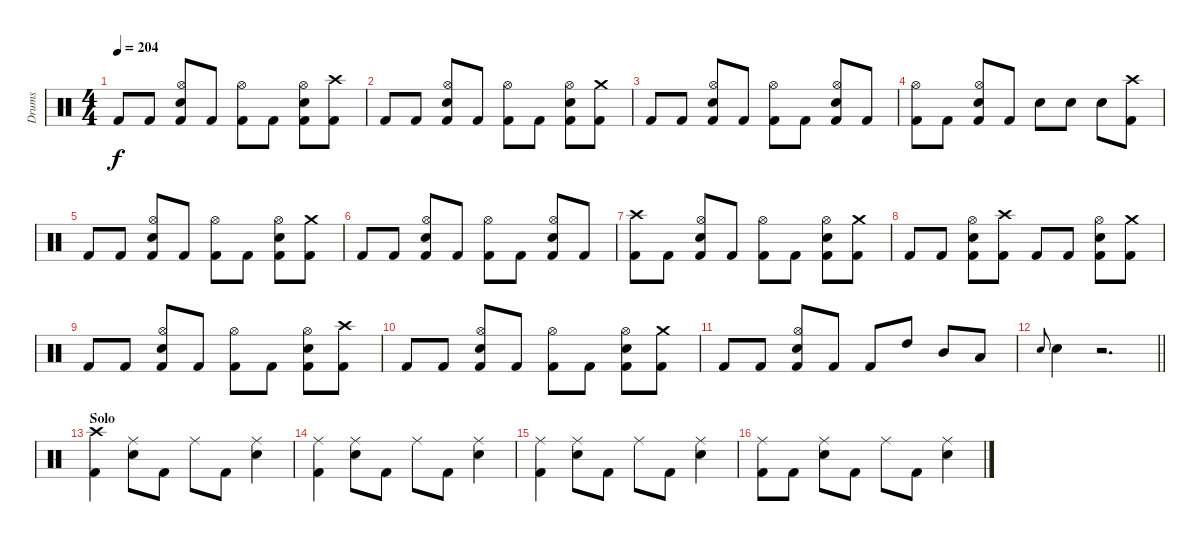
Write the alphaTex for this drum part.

\track ("Drums" "Drums") {instrument percussion}
\staff {score}
\articulation defaults
\ts (4 4)
\tempo 204
\clef neutral
\ks c "Kick (hit) 2".8{dy f} "Kick (hit) 2".8
("Hi-Hat (open)" "Snare (hit) 2" "Kick (hit) 2").8 "Kick (hit) 2".8 ("Hi-Hat (open)" "Kick (hit) 2").8 "Kick (hit) 2".8 ("Hi-Hat (open)" "Snare (hit) 2" "Kick (hit) 2").8 ("Crash high (hit)" "Kick (hit) 2").8 |
"Kick (hit) 2".8 "Kick (hit) 2".8 ("Hi-Hat (open)" "Snare (hit) 2" "Kick (hit) 2").8 "Kick (hit) 2".8 ("Hi-Hat (open)" "Kick (hit) 2").8 "Kick (hit) 2".8 ("Hi-Hat (open)" "Snare (hit) 2" "Kick (hit) 2").8 ("Crash medium (hit)" "Kick (hit) 2").8 |
"Kick (hit) 2".8 "Kick (hit) 2".8 ("Hi-Hat (open)" "Snare (hit) 2" "Kick (hit) 2").8 "Kick (hit) 2".8 ("Hi-Hat (open)" "Kick (hit) 2").8 "Kick (hit) 2".8 ("Hi-Hat (open)" "Snare (hit) 2" "Kick (hit) 2").8 "Kick (hit) 2".8 |
("Hi-Hat (open)" "Kick (hit) 2").8 "Kick (hit) 2".8 ("Hi-Hat (open)" "Snare (hit) 2" "Kick (hit) 2").8 "Kick (hit) 2".8 "Snare (hit) 2".8 "Snare (hit) 2".8 "Snare (hit) 2".8 ("Crash high (hit)" "Kick (hit) 2").8 |
"Kick (hit) 2".8 "Kick (hit) 2".8 ("Hi-Hat (open)" "Snare (hit) 2" "Kick (hit) 2").8 "Kick (hit) 2".8 ("Hi-Hat (open)" "Kick (hit) 2").8 "Kick (hit) 2".8 ("Hi-Hat (open)" "Snare (hit) 2" "Kick (hit) 2").8 ("Crash medium (hit)" "Kick (hit) 2").8 |
"Kick (hit) 2".8 "Kick (hit) 2".8 ("Hi-Hat (open)" "Snare (hit) 2" "Kick (hit) 2").8 "Kick (hit) 2".8 ("Hi-Hat (open)" "Kick (hit) 2").8 "Kick (hit) 2".8 ("Hi-Hat (open)" "Snare (hit) 2" "Kick (hit) 2").8 "Kick (hit) 2".8 |
("Crash high (hit)" "Kick (hit) 2").8 "Kick (hit) 2".8 ("Hi-Hat (open)" "Snare (hit) 2" "Kick (hit) 2").8 "Kick (hit) 2".8 ("Hi-Hat (open)" "Kick (hit) 2").8 "Kick (hit) 2".8 ("Hi-Hat (open)" "Snare (hit) 2" "Kick (hit) 2").8 ("Crash medium (hit)" "Kick (hit) 2").8 |
"Kick (hit) 2".8 "Kick (hit) 2".8 ("Hi-Hat (open)" "Snare (hit) 2" "Kick (hit) 2").8 ("Crash high (hit)" "Kick (hit) 2").8 "Kick (hit) 2".8 "Kick (hit) 2".8 ("Hi-Hat (open)" "Snare (hit) 2" "Kick (hit) 2").8 ("Crash medium (hit)" "Kick (hit) 2").8 |
"Kick (hit) 2".8 "Kick (hit) 2".8 ("Hi-Hat (open)" "Snare (hit) 2" "Kick (hit) 2").8 "Kick (hit) 2".8 ("Hi-Hat (open)" "Kick (hit) 2").8 "Kick (hit) 2".8 ("Hi-Hat (open)" "Snare (hit) 2" "Kick (hit) 2").8 ("Crash high (hit)" "Kick (hit) 2").8 |
"Kick (hit) 2".8 "Kick (hit) 2".8 ("Hi-Hat (open)" "Snare (hit) 2" "Kick (hit) 2").8 "Kick (hit) 2".8 ("Hi-Hat (open)" "Kick (hit) 2").8 "Kick (hit) 2".8 ("Hi-Hat (open)" "Snare (hit) 2" "Kick (hit) 2").8 ("Crash medium (hit)" "Kick (hit) 2").8 |
"Kick (hit) 2".8 "Kick (hit) 2".8 ("Hi-Hat (open)" "Snare (hit) 2" "Kick (hit) 2").8 "Kick (hit) 2".8 "Kick (hit) 2".8 "High Tom (hit)".8 "Mid Tom (hit)".8 "Low Tom (hit)".8 |
\barLineRight lightlight "Snare (hit) 2".8{gr onbeat} "Snare (hit) 2".4
r.2{d} |
\section ("" "Solo")
("Crash high (hit)" "Kick (hit) 2").4 ("Ride (middle)" "Snare (hit) 2").8 "Kick (hit) 2".8 "Ride (middle)".8 "Kick (hit) 2".8 ("Ride (middle)" "Snare (hit) 2").4 |
("Ride (middle)" "Kick (hit) 2").4 ("Ride (middle)" "Snare (hit) 2").8 "Kick (hit) 2".8 "Ride (middle)".8 "Kick (hit) 2".8 ("Ride (middle)" "Snare (hit) 2").4 |
("Ride (middle)" "Kick (hit) 2").4 ("Ride (middle)" "Snare (hit) 2").8 "Kick (hit) 2".8 "Ride (middle)".8 "Kick (hit) 2".8 ("Ride (middle)" "Snare (hit) 2").4 |
("Ride (middle)" "Kick (hit) 2").8 "Kick (hit) 2".8 ("Ride (middle)" "Snare (hit) 2").8 "Kick (hit) 2".8 "Ride (middle)".8 "Kick (hit) 2".8 ("Ride (middle)" "Snare (hit) 2").4
